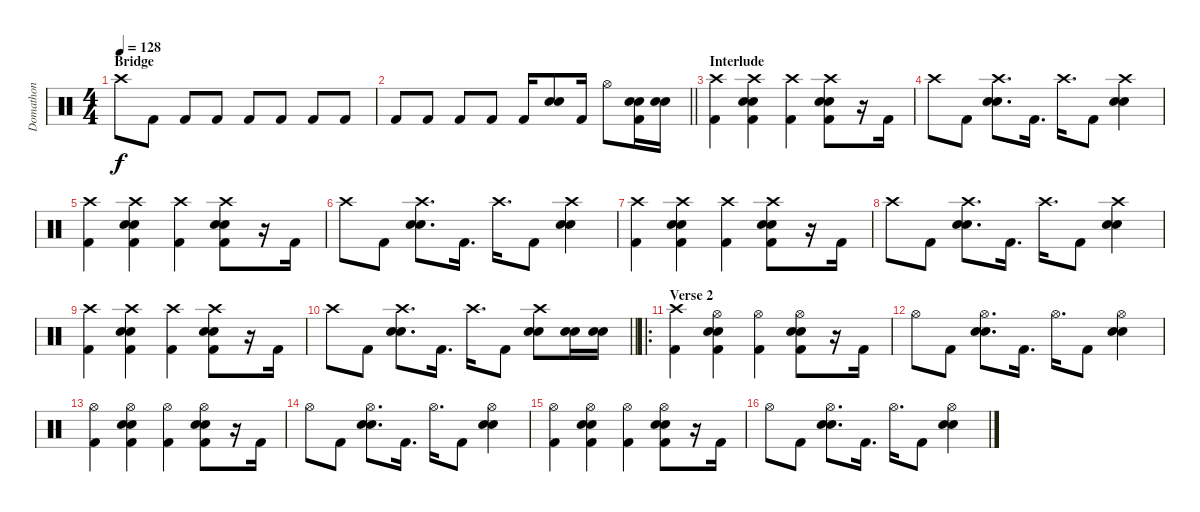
\track ("Domathon" "Domathon") {instrument percussion}
\staff {score}
\articulation defaults
\ts (4 4)
\section ("" "Bridge")
\tempo 128
\clef neutral
\ks c "Crash high (hit)".8{dy f} "Kick (hit) 2".8{volume 0} "Kick (hit) 2".8{volume 13} "Kick (hit) 2".8 "Kick (hit) 2".8 "Kick (hit) 2".8 "Kick (hit) 2".8 "Kick (hit) 2".8
|
\barLineRight lightlight "Kick (hit) 2".8 "Kick (hit) 2".8 "Kick (hit) 2".8 "Kick (hit) 2".8 "Kick (hit) 2".16
("Snare (hit) 2" "Electric Snare (hit)").8 "Kick (hit) 2".16 "Hi-Hat (open)".8 ("Snare (hit) 2" "Electric Snare (hit)" "Kick (hit) 2").16 ("Snare (hit) 2" "Electric Snare (hit)").16 |
\section ("" "Interlude")
("Crash high (hit)" "Kick (hit) 2").4 ("Crash high (hit)" "Snare (hit) 2" "Electric Snare (hit)" "Kick (hit) 2").4 ("Crash high (hit)" "Kick (hit) 2").4 ("Crash high (hit)" "Snare (hit) 2" "Electric Snare (hit)" "Kick (hit) 2").8 r.16 "Kick (hit) 2".16 |
"Crash high (hit)".8 "Kick (hit) 2".8 ("Crash high (hit)" "Snare (hit) 2" "Electric Snare (hit)").8{d} "Kick (hit) 2".16{d} "Crash high (hit)".16{d} "Kick (hit) 2".8 ("Crash high (hit)" "Snare (hit) 2" "Electric Snare (hit)").4 |
("Crash high (hit)" "Kick (hit) 2").4 ("Crash high (hit)" "Snare (hit) 2" "Electric Snare (hit)" "Kick (hit) 2").4 ("Crash high (hit)" "Kick (hit) 2").4 ("Crash high (hit)" "Snare (hit) 2" "Electric Snare (hit)" "Kick (hit) 2").8 r.16 "Kick (hit) 2".16 |
"Crash high (hit)".8 "Kick (hit) 2".8 ("Crash high (hit)" "Snare (hit) 2" "Electric Snare (hit)").8{d} "Kick (hit) 2".16{d} "Crash high (hit)".16{d} "Kick (hit) 2".8 ("Crash high (hit)" "Snare (hit) 2" "Electric Snare (hit)").4 |
("Crash high (hit)" "Kick (hit) 2").4 ("Crash high (hit)" "Snare (hit) 2" "Electric Snare (hit)" "Kick (hit) 2").4 ("Crash high (hit)" "Kick (hit) 2").4 ("Crash high (hit)" "Snare (hit) 2" "Electric Snare (hit)" "Kick (hit) 2").8 r.16 "Kick (hit) 2".16 |
"Crash high (hit)".8 "Kick (hit) 2".8 ("Crash high (hit)" "Snare (hit) 2" "Electric Snare (hit)").8{d} "Kick (hit) 2".16{d} "Crash high (hit)".16{d} "Kick (hit) 2".8 ("Crash high (hit)" "Snare (hit) 2" "Electric Snare (hit)").4 |
("Crash high (hit)" "Kick (hit) 2").4 ("Crash high (hit)" "Snare (hit) 2" "Electric Snare (hit)" "Kick (hit) 2").4 ("Crash high (hit)" "Kick (hit) 2").4 ("Crash high (hit)" "Snare (hit) 2" "Electric Snare (hit)" "Kick (hit) 2").8 r.16 "Kick (hit) 2".16 |
\barLineRight lightlight "Crash high (hit)".8 "Kick (hit) 2".8
("Crash high (hit)" "Snare (hit) 2" "Electric Snare (hit)").8{d} "Kick (hit) 2".16{d} "Crash high (hit)".16{d} "Kick (hit) 2".8 ("Crash high (hit)" "Snare (hit) 2" "Electric Snare (hit)").8 ("Snare (hit) 2" "Electric Snare (hit)").16 ("Snare (hit) 2" "Electric Snare (hit)").16 |
\ro
\section ("" "Verse 2")
("Crash high (hit)" "Kick (hit) 2").4 ("Hi-Hat (open)" "Snare (hit) 2" "Electric Snare (hit)" "Kick (hit) 2").4 ("Hi-Hat (open)" "Kick (hit) 2").4 ("Hi-Hat (open)" "Snare (hit) 2" "Electric Snare (hit)" "Kick (hit) 2").8 r.16 "Kick (hit) 2".16 |
"Hi-Hat (open)".8 "Kick (hit) 2".8 ("Hi-Hat (open)" "Snare (hit) 2" "Electric Snare (hit)").8{d} "Kick (hit) 2".16{d} "Hi-Hat (open)".16{d} "Kick (hit) 2".8 ("Hi-Hat (open)" "Snare (hit) 2" "Electric Snare (hit)").4 |
("Hi-Hat (open)" "Kick (hit) 2").4 ("Hi-Hat (open)" "Snare (hit) 2" "Electric Snare (hit)" "Kick (hit) 2").4 ("Hi-Hat (open)" "Kick (hit) 2").4 ("Hi-Hat (open)" "Snare (hit) 2" "Electric Snare (hit)" "Kick (hit) 2").8 r.16 "Kick (hit) 2".16 |
"Hi-Hat (open)".8 "Kick (hit) 2".8 ("Hi-Hat (open)" "Snare (hit) 2" "Electric Snare (hit)").8{d} "Kick (hit) 2".16{d} "Hi-Hat (open)".16{d} "Kick (hit) 2".8 ("Hi-Hat (open)" "Snare (hit) 2" "Electric Snare (hit)").4 |
("Hi-Hat (open)" "Kick (hit) 2").4 ("Hi-Hat (open)" "Snare (hit) 2" "Electric Snare (hit)" "Kick (hit) 2").4 ("Hi-Hat (open)" "Kick (hit) 2").4 ("Hi-Hat (open)" "Snare (hit) 2" "Electric Snare (hit)" "Kick (hit) 2").8 r.16 "Kick (hit) 2".16 |
"Hi-Hat (open)".8 "Kick (hit) 2".8 ("Hi-Hat (open)" "Snare (hit) 2" "Electric Snare (hit)").8{d} "Kick (hit) 2".16{d} "Hi-Hat (open)".16{d} "Kick (hit) 2".8 ("Hi-Hat (open)" "Snare (hit) 2" "Electric Snare (hit)").4
